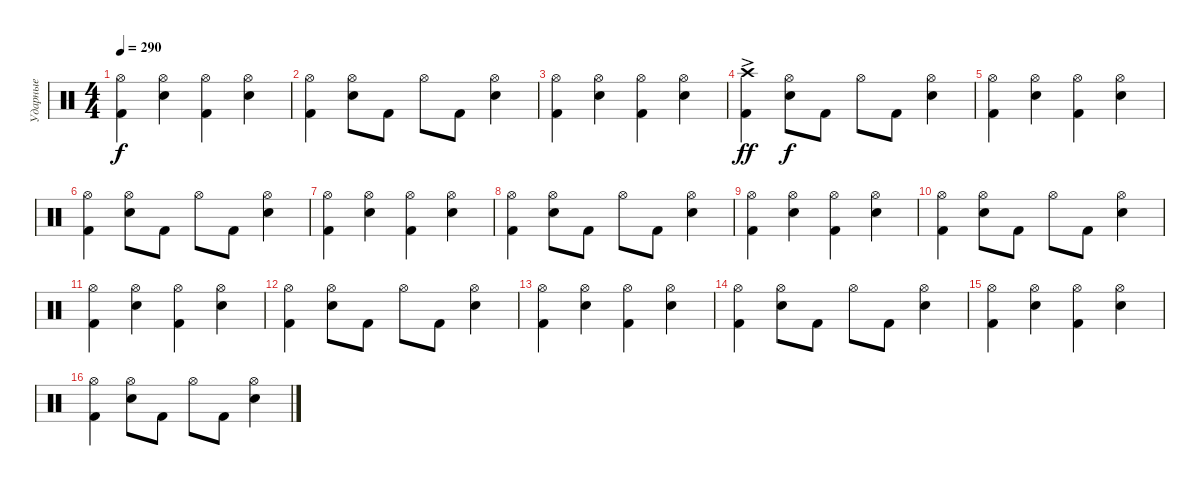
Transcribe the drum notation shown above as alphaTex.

\track ("Ударные" "Ударные") {instrument percussion}
\staff {score}
\articulation defaults
\ts (4 4)
\tempo 290
\clef neutral
\ks c
("Kick (hit) 2" "Hi-Hat (open)").4{dy f} ("Snare (hit) 2" "Hi-Hat (open)").4 ("Kick (hit) 2" "Hi-Hat (open)").4 ("Snare (hit) 2" "Hi-Hat (open)").4 |
("Kick (hit) 2" "Hi-Hat (open)").4 ("Snare (hit) 2" "Hi-Hat (open)").8 "Kick (hit) 2".8 "Hi-Hat (open)".8 "Kick (hit) 2".8 ("Snare (hit) 2" "Hi-Hat (open)").4 |
("Kick (hit) 2" "Hi-Hat (open)").4 ("Snare (hit) 2" "Hi-Hat (open)").4 ("Kick (hit) 2" "Hi-Hat (open)").4 ("Snare (hit) 2" "Hi-Hat (open)").4 |
("Kick (hit) 2" "Crash high (hit)"{ac}).4{dy ff} ("Snare (hit) 2" "Hi-Hat (open)").8{dy f} "Kick (hit) 2".8 "Hi-Hat (open)".8 "Kick (hit) 2".8 ("Snare (hit) 2" "Hi-Hat (open)").4 |
("Kick (hit) 2" "Hi-Hat (open)").4 ("Snare (hit) 2" "Hi-Hat (open)").4 ("Kick (hit) 2" "Hi-Hat (open)").4 ("Snare (hit) 2" "Hi-Hat (open)").4 |
("Kick (hit) 2" "Hi-Hat (open)").4 ("Snare (hit) 2" "Hi-Hat (open)").8 "Kick (hit) 2".8 "Hi-Hat (open)".8 "Kick (hit) 2".8 ("Snare (hit) 2" "Hi-Hat (open)").4 |
("Kick (hit) 2" "Hi-Hat (open)").4 ("Snare (hit) 2" "Hi-Hat (open)").4 ("Kick (hit) 2" "Hi-Hat (open)").4 ("Snare (hit) 2" "Hi-Hat (open)").4 |
("Kick (hit) 2" "Hi-Hat (open)").4 ("Snare (hit) 2" "Hi-Hat (open)").8 "Kick (hit) 2".8 "Hi-Hat (open)".8 "Kick (hit) 2".8 ("Snare (hit) 2" "Hi-Hat (open)").4 |
("Kick (hit) 2" "Hi-Hat (open)").4 ("Snare (hit) 2" "Hi-Hat (open)").4 ("Kick (hit) 2" "Hi-Hat (open)").4 ("Snare (hit) 2" "Hi-Hat (open)").4 |
("Kick (hit) 2" "Hi-Hat (open)").4 ("Snare (hit) 2" "Hi-Hat (open)").8 "Kick (hit) 2".8 "Hi-Hat (open)".8 "Kick (hit) 2".8 ("Snare (hit) 2" "Hi-Hat (open)").4 |
("Kick (hit) 2" "Hi-Hat (open)").4 ("Snare (hit) 2" "Hi-Hat (open)").4 ("Kick (hit) 2" "Hi-Hat (open)").4 ("Snare (hit) 2" "Hi-Hat (open)").4 |
("Kick (hit) 2" "Hi-Hat (open)").4 ("Snare (hit) 2" "Hi-Hat (open)").8 "Kick (hit) 2".8 "Hi-Hat (open)".8 "Kick (hit) 2".8 ("Snare (hit) 2" "Hi-Hat (open)").4 |
("Kick (hit) 2" "Hi-Hat (open)").4 ("Snare (hit) 2" "Hi-Hat (open)").4 ("Kick (hit) 2" "Hi-Hat (open)").4 ("Snare (hit) 2" "Hi-Hat (open)").4 |
("Kick (hit) 2" "Hi-Hat (open)").4 ("Snare (hit) 2" "Hi-Hat (open)").8 "Kick (hit) 2".8 "Hi-Hat (open)".8 "Kick (hit) 2".8 ("Snare (hit) 2" "Hi-Hat (open)").4 |
("Kick (hit) 2" "Hi-Hat (open)").4 ("Snare (hit) 2" "Hi-Hat (open)").4 ("Kick (hit) 2" "Hi-Hat (open)").4 ("Snare (hit) 2" "Hi-Hat (open)").4 |
("Kick (hit) 2" "Hi-Hat (open)").4 ("Snare (hit) 2" "Hi-Hat (open)").8 "Kick (hit) 2".8 "Hi-Hat (open)".8 "Kick (hit) 2".8 ("Snare (hit) 2" "Hi-Hat (open)").4
